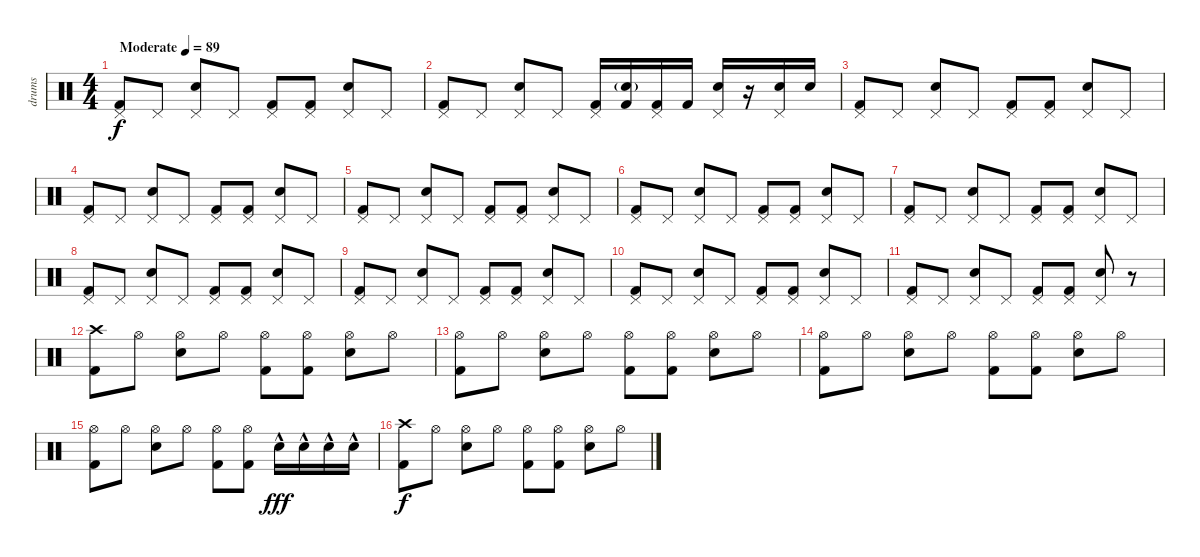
\track ("drums" "drums") {instrument percussion}
\staff {score}
\articulation defaults
\ts (4 4)
\tempo (89 "Moderate")
\clef neutral
\ks c
("Kick (hit) 2" "Pedal Hi-Hat (hit)").8{dy f} "Pedal Hi-Hat (hit)".8 ("Electric Snare (hit)" "Pedal Hi-Hat (hit)").8 "Pedal Hi-Hat (hit)".8 ("Kick (hit) 2" "Pedal Hi-Hat (hit)").8 ("Kick (hit) 2" "Pedal Hi-Hat (hit)").8 ("Electric Snare (hit)" "Pedal Hi-Hat (hit)").8 "Pedal Hi-Hat (hit)".8 |
("Kick (hit) 2" "Pedal Hi-Hat (hit)").8 "Pedal Hi-Hat (hit)".8 ("Electric Snare (hit)" "Pedal Hi-Hat (hit)").8 "Pedal Hi-Hat (hit)".8 ("Kick (hit) 2" "Pedal Hi-Hat (hit)").16 ("Electric Snare (hit)"{g} "Kick (hit) 2").16 ("Kick (hit) 2" "Pedal Hi-Hat (hit)").16 "Kick (hit) 2".16 ("Electric Snare (hit)" "Pedal Hi-Hat (hit)").16 r.16 ("Electric Snare (hit)" "Pedal Hi-Hat (hit)").16 "Electric Snare (hit)".16 |
("Kick (hit) 2" "Pedal Hi-Hat (hit)").8 "Pedal Hi-Hat (hit)".8 ("Electric Snare (hit)" "Pedal Hi-Hat (hit)").8 "Pedal Hi-Hat (hit)".8 ("Kick (hit) 2" "Pedal Hi-Hat (hit)").8 ("Kick (hit) 2" "Pedal Hi-Hat (hit)").8 ("Electric Snare (hit)" "Pedal Hi-Hat (hit)").8 "Pedal Hi-Hat (hit)".8 |
("Kick (hit) 2" "Pedal Hi-Hat (hit)").8 "Pedal Hi-Hat (hit)".8 ("Electric Snare (hit)" "Pedal Hi-Hat (hit)").8 "Pedal Hi-Hat (hit)".8 ("Kick (hit) 2" "Pedal Hi-Hat (hit)").8 ("Kick (hit) 2" "Pedal Hi-Hat (hit)").8 ("Electric Snare (hit)" "Pedal Hi-Hat (hit)").8 "Pedal Hi-Hat (hit)".8 |
("Kick (hit) 2" "Pedal Hi-Hat (hit)").8 "Pedal Hi-Hat (hit)".8 ("Electric Snare (hit)" "Pedal Hi-Hat (hit)").8 "Pedal Hi-Hat (hit)".8 ("Kick (hit) 2" "Pedal Hi-Hat (hit)").8 ("Kick (hit) 2" "Pedal Hi-Hat (hit)").8 ("Electric Snare (hit)" "Pedal Hi-Hat (hit)").8 "Pedal Hi-Hat (hit)".8 |
("Kick (hit) 2" "Pedal Hi-Hat (hit)").8 "Pedal Hi-Hat (hit)".8 ("Electric Snare (hit)" "Pedal Hi-Hat (hit)").8 "Pedal Hi-Hat (hit)".8 ("Kick (hit) 2" "Pedal Hi-Hat (hit)").8 ("Kick (hit) 2" "Pedal Hi-Hat (hit)").8 ("Electric Snare (hit)" "Pedal Hi-Hat (hit)").8 "Pedal Hi-Hat (hit)".8 |
("Kick (hit) 2" "Pedal Hi-Hat (hit)").8 "Pedal Hi-Hat (hit)".8 ("Electric Snare (hit)" "Pedal Hi-Hat (hit)").8 "Pedal Hi-Hat (hit)".8 ("Kick (hit) 2" "Pedal Hi-Hat (hit)").8 ("Kick (hit) 2" "Pedal Hi-Hat (hit)").8 ("Electric Snare (hit)" "Pedal Hi-Hat (hit)").8 "Pedal Hi-Hat (hit)".8 |
("Kick (hit) 2" "Pedal Hi-Hat (hit)").8 "Pedal Hi-Hat (hit)".8 ("Electric Snare (hit)" "Pedal Hi-Hat (hit)").8 "Pedal Hi-Hat (hit)".8 ("Kick (hit) 2" "Pedal Hi-Hat (hit)").8 ("Kick (hit) 2" "Pedal Hi-Hat (hit)").8 ("Electric Snare (hit)" "Pedal Hi-Hat (hit)").8 "Pedal Hi-Hat (hit)".8 |
("Kick (hit) 2" "Pedal Hi-Hat (hit)").8 "Pedal Hi-Hat (hit)".8 ("Electric Snare (hit)" "Pedal Hi-Hat (hit)").8 "Pedal Hi-Hat (hit)".8 ("Kick (hit) 2" "Pedal Hi-Hat (hit)").8 ("Kick (hit) 2" "Pedal Hi-Hat (hit)").8 ("Electric Snare (hit)" "Pedal Hi-Hat (hit)").8 "Pedal Hi-Hat (hit)".8 |
("Kick (hit) 2" "Pedal Hi-Hat (hit)").8 "Pedal Hi-Hat (hit)".8 ("Electric Snare (hit)" "Pedal Hi-Hat (hit)").8 "Pedal Hi-Hat (hit)".8 ("Kick (hit) 2" "Pedal Hi-Hat (hit)").8 ("Kick (hit) 2" "Pedal Hi-Hat (hit)").8 ("Electric Snare (hit)" "Pedal Hi-Hat (hit)").8 "Pedal Hi-Hat (hit)".8 |
("Kick (hit) 2" "Pedal Hi-Hat (hit)").8 "Pedal Hi-Hat (hit)".8 ("Electric Snare (hit)" "Pedal Hi-Hat (hit)").8 "Pedal Hi-Hat (hit)".8 ("Kick (hit) 2" "Pedal Hi-Hat (hit)").8 ("Kick (hit) 2" "Pedal Hi-Hat (hit)").8 ("Electric Snare (hit)" "Pedal Hi-Hat (hit)").8 r.8 |
("Crash high (hit)" "Kick (hit) 2").8 "Hi-Hat (open)".8 ("Electric Snare (hit)" "Hi-Hat (open)").8 "Hi-Hat (open)".8 ("Kick (hit) 2" "Hi-Hat (open)").8 ("Kick (hit) 2" "Hi-Hat (open)").8 ("Electric Snare (hit)" "Hi-Hat (open)").8 "Hi-Hat (open)".8 |
("Kick (hit) 2" "Hi-Hat (open)").8 "Hi-Hat (open)".8 ("Electric Snare (hit)" "Hi-Hat (open)").8 "Hi-Hat (open)".8 ("Kick (hit) 2" "Hi-Hat (open)").8 ("Kick (hit) 2" "Hi-Hat (open)").8 ("Electric Snare (hit)" "Hi-Hat (open)").8 "Hi-Hat (open)".8 |
("Kick (hit) 2" "Hi-Hat (open)").8 "Hi-Hat (open)".8 ("Electric Snare (hit)" "Hi-Hat (open)").8 "Hi-Hat (open)".8 ("Kick (hit) 2" "Hi-Hat (open)").8 ("Kick (hit) 2" "Hi-Hat (open)").8 ("Electric Snare (hit)" "Hi-Hat (open)").8 "Hi-Hat (open)".8 |
("Kick (hit) 2" "Hi-Hat (open)").8 "Hi-Hat (open)".8 ("Electric Snare (hit)" "Hi-Hat (open)").8 "Hi-Hat (open)".8 ("Kick (hit) 2" "Hi-Hat (open)").8 ("Kick (hit) 2" "Hi-Hat (open)").8 "Electric Snare (hit)"{hac}.16{dy fff} "Electric Snare (hit)"{hac}.16 "Electric Snare (hit)"{hac}.16 "Electric Snare (hit)"{hac}.16 |
("Crash high (hit)" "Kick (hit) 2").8{dy f} "Hi-Hat (open)".8 ("Electric Snare (hit)" "Hi-Hat (open)").8 "Hi-Hat (open)".8 ("Kick (hit) 2" "Hi-Hat (open)").8 ("Kick (hit) 2" "Hi-Hat (open)").8 ("Electric Snare (hit)" "Hi-Hat (open)").8 "Hi-Hat (open)".8
